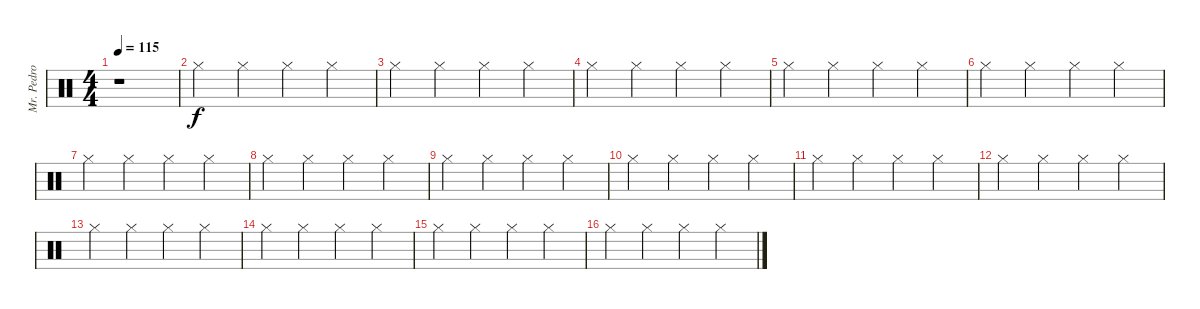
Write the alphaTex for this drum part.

\track ("Mr. Pedro Andreu" "Mr. Pedro ") {instrument percussion}
\staff {score}
\articulation defaults
\ts (4 4)
\tempo 115
\clef neutral
\ks c
r.1{dy f} |
"Hi-Hat (closed)".4 "Hi-Hat (closed)".4 "Hi-Hat (closed)".4 "Hi-Hat (closed)".4 |
"Hi-Hat (closed)".4 "Hi-Hat (closed)".4 "Hi-Hat (closed)".4 "Hi-Hat (closed)".4 |
"Hi-Hat (closed)".4 "Hi-Hat (closed)".4 "Hi-Hat (closed)".4 "Hi-Hat (closed)".4 |
"Hi-Hat (closed)".4 "Hi-Hat (closed)".4 "Hi-Hat (closed)".4 "Hi-Hat (closed)".4 |
"Hi-Hat (closed)".4 "Hi-Hat (closed)".4 "Hi-Hat (closed)".4 "Hi-Hat (closed)".4 |
"Hi-Hat (closed)".4 "Hi-Hat (closed)".4 "Hi-Hat (closed)".4 "Hi-Hat (closed)".4 |
"Hi-Hat (closed)".4 "Hi-Hat (closed)".4 "Hi-Hat (closed)".4 "Hi-Hat (closed)".4 |
"Hi-Hat (closed)".4 "Hi-Hat (closed)".4 "Hi-Hat (closed)".4 "Hi-Hat (closed)".4 |
"Hi-Hat (closed)".4 "Hi-Hat (closed)".4 "Hi-Hat (closed)".4 "Hi-Hat (closed)".4 |
"Hi-Hat (closed)".4 "Hi-Hat (closed)".4 "Hi-Hat (closed)".4 "Hi-Hat (closed)".4 |
"Hi-Hat (closed)".4 "Hi-Hat (closed)".4 "Hi-Hat (closed)".4 "Hi-Hat (closed)".4 |
"Hi-Hat (closed)".4 "Hi-Hat (closed)".4 "Hi-Hat (closed)".4 "Hi-Hat (closed)".4 |
"Hi-Hat (closed)".4 "Hi-Hat (closed)".4 "Hi-Hat (closed)".4 "Hi-Hat (closed)".4 |
"Hi-Hat (closed)".4 "Hi-Hat (closed)".4 "Hi-Hat (closed)".4 "Hi-Hat (closed)".4 |
"Hi-Hat (closed)".4 "Hi-Hat (closed)".4 "Hi-Hat (closed)".4 "Hi-Hat (closed)".4
